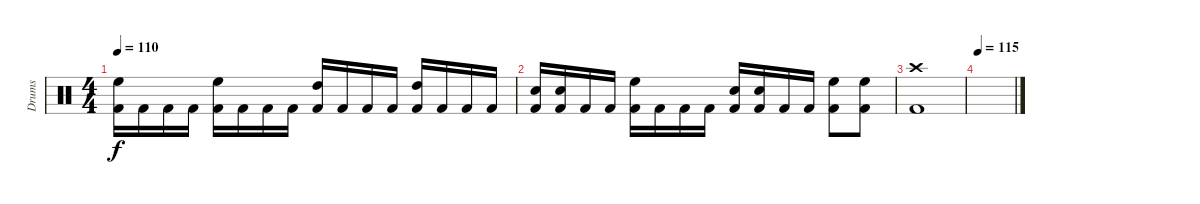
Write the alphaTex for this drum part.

\track ("Drums" "Drums") {instrument percussion}
\staff {score}
\articulation defaults
\ts (4 4)
\tempo 110
\clef neutral
\ks c
("High Floor Tom (hit)" "Kick (hit) 2").16{dy f} "Kick (hit) 2".16 "Kick (hit) 2".16 "Kick (hit) 2".16 ("High Floor Tom (hit)" "Kick (hit) 2").16 "Kick (hit) 2".16 "Kick (hit) 2".16 "Kick (hit) 2".16 ("High Tom (hit)" "Kick (hit) 2").16 "Kick (hit) 2".16 "Kick (hit) 2".16 "Kick (hit) 2".16 ("High Tom (hit)" "Kick (hit) 2").16 "Kick (hit) 2".16 "Kick (hit) 2".16 "Kick (hit) 2".16 |
("Snare (hit) 2" "Kick (hit) 2").16 ("Snare (hit) 2" "Kick (hit) 2").16 "Kick (hit) 2".16 "Kick (hit) 2".16 ("High Floor Tom (hit)" "Kick (hit) 2").16 "Kick (hit) 2".16 "Kick (hit) 2".16 "Kick (hit) 2".16 ("Snare (hit) 2" "Kick (hit) 2").16 ("Snare (hit) 2" "Kick (hit) 2").16 "Kick (hit) 2".16 "Kick (hit) 2".16 ("High Floor Tom (hit)" "Kick (hit) 2").8 ("High Floor Tom (hit)" "Kick (hit) 2").8 |
("Crash high (hit)" "Kick (hit) 2").1 |
\tempo 115
